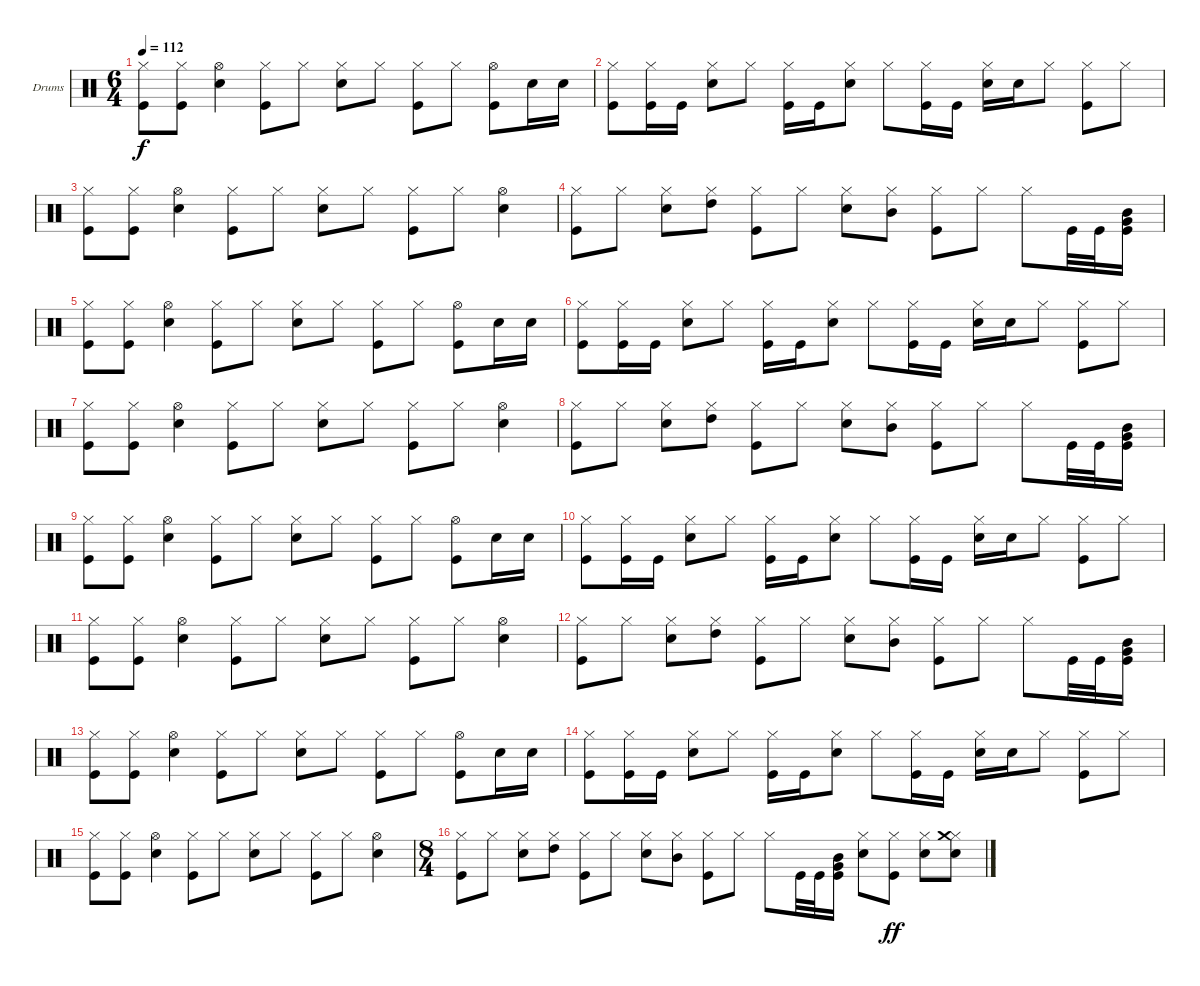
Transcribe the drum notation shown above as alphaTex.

\defaultSystemsLayout 4
\bracketExtendMode groupsimilarinstruments
\firstSystemTrackNameOrientation horizontal
\otherSystemsTrackNameOrientation horizontal
\track ("Kaleb - Drums" "Drums") {instrument percussion}
\staff {score}
\articulation defaults
\ts (6 4)
\tempo 112
\clef neutral
\scale
0.333333
\ks c
("Hi-Hat (closed)" "Kick (hit)").8{dy f} ("Hi-Hat (closed)" "Kick (hit)").8 ("Hi-Hat (open)" "Snare (hit) 2").4 ("Hi-Hat (closed)" "Kick (hit)").8 "Hi-Hat (closed)".8 ("Hi-Hat (closed)" "Snare (hit) 2").8 "Hi-Hat (closed)".8 ("Hi-Hat (closed)" "Kick (hit)").8 "Hi-Hat (closed)".8 ("Kick (hit)" "Hi-Hat (open)").8 "Snare (hit) 2".16 "Snare (hit) 2".16 |
\scale
0.333333 ("Kick (hit)" "Hi-Hat (closed)").8 ("Kick (hit)" "Hi-Hat (closed)").16 "Kick (hit)".16 ("Snare (hit) 2" "Hi-Hat (closed)").8 "Hi-Hat (closed)".8 ("Hi-Hat (closed)" "Kick (hit)").16 "Kick (hit)".16 ("Hi-Hat (closed)" "Snare (hit) 2").8 "Hi-Hat (closed)".8 ("Hi-Hat (closed)" "Kick (hit)").16 "Kick (hit)".16 ("Hi-Hat (closed)" "Snare (hit) 2").16 "Snare (hit) 2".16 "Hi-Hat (closed)".8 ("Hi-Hat (closed)" "Kick (hit)").8 "Hi-Hat (closed)".8 |
\scale
0.333333 ("Hi-Hat (closed)" "Kick (hit)").8 ("Hi-Hat (closed)" "Kick (hit)").8 ("Hi-Hat (open)" "Snare (hit) 2").4 ("Hi-Hat (closed)" "Kick (hit)").8 "Hi-Hat (closed)".8 ("Hi-Hat (closed)" "Snare (hit) 2").8 "Hi-Hat (closed)".8 ("Hi-Hat (closed)" "Kick (hit)").8 "Hi-Hat (closed)".8 ("Hi-Hat (open)" "Snare (hit) 2").4 |
\scale
0.333333 ("Kick (hit)" "Hi-Hat (closed)").8 "Hi-Hat (closed)".8 ("Hi-Hat (closed)" "Snare (hit) 2").8 ("Hi-Hat (closed)" "High Tom (hit)").8 ("Hi-Hat (closed)" "Kick (hit)").8 "Hi-Hat (closed)".8 ("Hi-Hat (closed)" "Snare (hit) 2").8 ("Hi-Hat (closed)" "Mid Tom (hit)").8 ("Hi-Hat (closed)" "Kick (hit)").8 "Hi-Hat (closed)".8 "Hi-Hat (closed)".8 "Kick (hit)".32 "Kick (hit)".32 ("Mid Tom (hit)" "Very Low Tom (hit)" "Kick (hit)").16 |
("Hi-Hat (closed)" "Kick (hit)").8 ("Hi-Hat (closed)" "Kick (hit)").8 ("Hi-Hat (open)" "Snare (hit) 2").4 ("Hi-Hat (closed)" "Kick (hit)").8 "Hi-Hat (closed)".8 ("Hi-Hat (closed)" "Snare (hit) 2").8 "Hi-Hat (closed)".8 ("Hi-Hat (closed)" "Kick (hit)").8 "Hi-Hat (closed)".8 ("Kick (hit)" "Hi-Hat (open)").8 "Snare (hit) 2".16 "Snare (hit) 2".16 |
("Kick (hit)" "Hi-Hat (closed)").8 ("Kick (hit)" "Hi-Hat (closed)").16 "Kick (hit)".16 ("Snare (hit) 2" "Hi-Hat (closed)").8 "Hi-Hat (closed)".8 ("Hi-Hat (closed)" "Kick (hit)").16 "Kick (hit)".16 ("Hi-Hat (closed)" "Snare (hit) 2").8 "Hi-Hat (closed)".8 ("Hi-Hat (closed)" "Kick (hit)").16 "Kick (hit)".16 ("Hi-Hat (closed)" "Snare (hit) 2").16 "Snare (hit) 2".16 "Hi-Hat (closed)".8 ("Hi-Hat (closed)" "Kick (hit)").8 "Hi-Hat (closed)".8 |
("Hi-Hat (closed)" "Kick (hit)").8 ("Hi-Hat (closed)" "Kick (hit)").8 ("Hi-Hat (open)" "Snare (hit) 2").4 ("Hi-Hat (closed)" "Kick (hit)").8 "Hi-Hat (closed)".8 ("Hi-Hat (closed)" "Snare (hit) 2").8 "Hi-Hat (closed)".8 ("Hi-Hat (closed)" "Kick (hit)").8 "Hi-Hat (closed)".8 ("Hi-Hat (open)" "Snare (hit) 2").4 |
("Kick (hit)" "Hi-Hat (closed)").8 "Hi-Hat (closed)".8 ("Hi-Hat (closed)" "Snare (hit) 2").8 ("Hi-Hat (closed)" "High Tom (hit)").8 ("Hi-Hat (closed)" "Kick (hit)").8 "Hi-Hat (closed)".8 ("Hi-Hat (closed)" "Snare (hit) 2").8 ("Hi-Hat (closed)" "Mid Tom (hit)").8 ("Hi-Hat (closed)" "Kick (hit)").8 "Hi-Hat (closed)".8 "Hi-Hat (closed)".8 "Kick (hit)".32 "Kick (hit)".32 ("Mid Tom (hit)" "Very Low Tom (hit)" "Kick (hit)").16 |
("Hi-Hat (closed)" "Kick (hit)").8 ("Hi-Hat (closed)" "Kick (hit)").8 ("Hi-Hat (open)" "Snare (hit) 2").4 ("Hi-Hat (closed)" "Kick (hit)").8 "Hi-Hat (closed)".8 ("Hi-Hat (closed)" "Snare (hit) 2").8 "Hi-Hat (closed)".8 ("Hi-Hat (closed)" "Kick (hit)").8 "Hi-Hat (closed)".8 ("Kick (hit)" "Hi-Hat (open)").8 "Snare (hit) 2".16 "Snare (hit) 2".16 |
("Kick (hit)" "Hi-Hat (closed)").8 ("Kick (hit)" "Hi-Hat (closed)").16 "Kick (hit)".16 ("Snare (hit) 2" "Hi-Hat (closed)").8 "Hi-Hat (closed)".8 ("Hi-Hat (closed)" "Kick (hit)").16 "Kick (hit)".16 ("Hi-Hat (closed)" "Snare (hit) 2").8 "Hi-Hat (closed)".8 ("Hi-Hat (closed)" "Kick (hit)").16 "Kick (hit)".16 ("Hi-Hat (closed)" "Snare (hit) 2").16 "Snare (hit) 2".16 "Hi-Hat (closed)".8 ("Hi-Hat (closed)" "Kick (hit)").8 "Hi-Hat (closed)".8 |
("Hi-Hat (closed)" "Kick (hit)").8 ("Hi-Hat (closed)" "Kick (hit)").8 ("Hi-Hat (open)" "Snare (hit) 2").4 ("Hi-Hat (closed)" "Kick (hit)").8 "Hi-Hat (closed)".8 ("Hi-Hat (closed)" "Snare (hit) 2").8 "Hi-Hat (closed)".8 ("Hi-Hat (closed)" "Kick (hit)").8 "Hi-Hat (closed)".8 ("Hi-Hat (open)" "Snare (hit) 2").4 |
("Kick (hit)" "Hi-Hat (closed)").8 "Hi-Hat (closed)".8 ("Hi-Hat (closed)" "Snare (hit) 2").8 ("Hi-Hat (closed)" "High Tom (hit)").8 ("Hi-Hat (closed)" "Kick (hit)").8 "Hi-Hat (closed)".8 ("Hi-Hat (closed)" "Snare (hit) 2").8 ("Hi-Hat (closed)" "Mid Tom (hit)").8 ("Hi-Hat (closed)" "Kick (hit)").8 "Hi-Hat (closed)".8 "Hi-Hat (closed)".8 "Kick (hit)".32 "Kick (hit)".32 ("Mid Tom (hit)" "Very Low Tom (hit)" "Kick (hit)").16 |
("Hi-Hat (closed)" "Kick (hit)").8 ("Hi-Hat (closed)" "Kick (hit)").8 ("Hi-Hat (open)" "Snare (hit) 2").4 ("Hi-Hat (closed)" "Kick (hit)").8 "Hi-Hat (closed)".8 ("Hi-Hat (closed)" "Snare (hit) 2").8 "Hi-Hat (closed)".8 ("Hi-Hat (closed)" "Kick (hit)").8 "Hi-Hat (closed)".8 ("Kick (hit)" "Hi-Hat (open)").8 "Snare (hit) 2".16 "Snare (hit) 2".16 |
("Kick (hit)" "Hi-Hat (closed)").8 ("Kick (hit)" "Hi-Hat (closed)").16 "Kick (hit)".16 ("Snare (hit) 2" "Hi-Hat (closed)").8 "Hi-Hat (closed)".8 ("Hi-Hat (closed)" "Kick (hit)").16 "Kick (hit)".16 ("Hi-Hat (closed)" "Snare (hit) 2").8 "Hi-Hat (closed)".8 ("Hi-Hat (closed)" "Kick (hit)").16 "Kick (hit)".16 ("Hi-Hat (closed)" "Snare (hit) 2").16 "Snare (hit) 2".16 "Hi-Hat (closed)".8 ("Hi-Hat (closed)" "Kick (hit)").8 "Hi-Hat (closed)".8 |
("Hi-Hat (closed)" "Kick (hit)").8 ("Hi-Hat (closed)" "Kick (hit)").8 ("Hi-Hat (open)" "Snare (hit) 2").4 ("Hi-Hat (closed)" "Kick (hit)").8 "Hi-Hat (closed)".8 ("Hi-Hat (closed)" "Snare (hit) 2").8 "Hi-Hat (closed)".8 ("Hi-Hat (closed)" "Kick (hit)").8 "Hi-Hat (closed)".8 ("Hi-Hat (open)" "Snare (hit) 2").4 |
\ts (8 4)
("Kick (hit)" "Hi-Hat (closed)").8 "Hi-Hat (closed)".8 ("Hi-Hat (closed)" "Snare (hit) 2").8 ("Hi-Hat (closed)" "High Tom (hit)").8 ("Hi-Hat (closed)" "Kick (hit)").8 "Hi-Hat (closed)".8 ("Hi-Hat (closed)" "Snare (hit) 2").8 ("Hi-Hat (closed)" "Mid Tom (hit)").8 ("Hi-Hat (closed)" "Kick (hit)").8 "Hi-Hat (closed)".8 "Hi-Hat (closed)".8 "Kick (hit)".32 "Kick (hit)".32 ("Mid Tom (hit)" "Very Low Tom (hit)" "Kick (hit)").16 ("Snare (hit) 2" "Hi-Hat (closed)").8 ("Kick (hit)" "Hi-Hat (closed)").8{dy ff} ("Snare (hit) 2" "Hi-Hat (closed)").8 ("Snare (hit) 2" "Hi-Hat (closed)" "Crash medium (hit)").8
